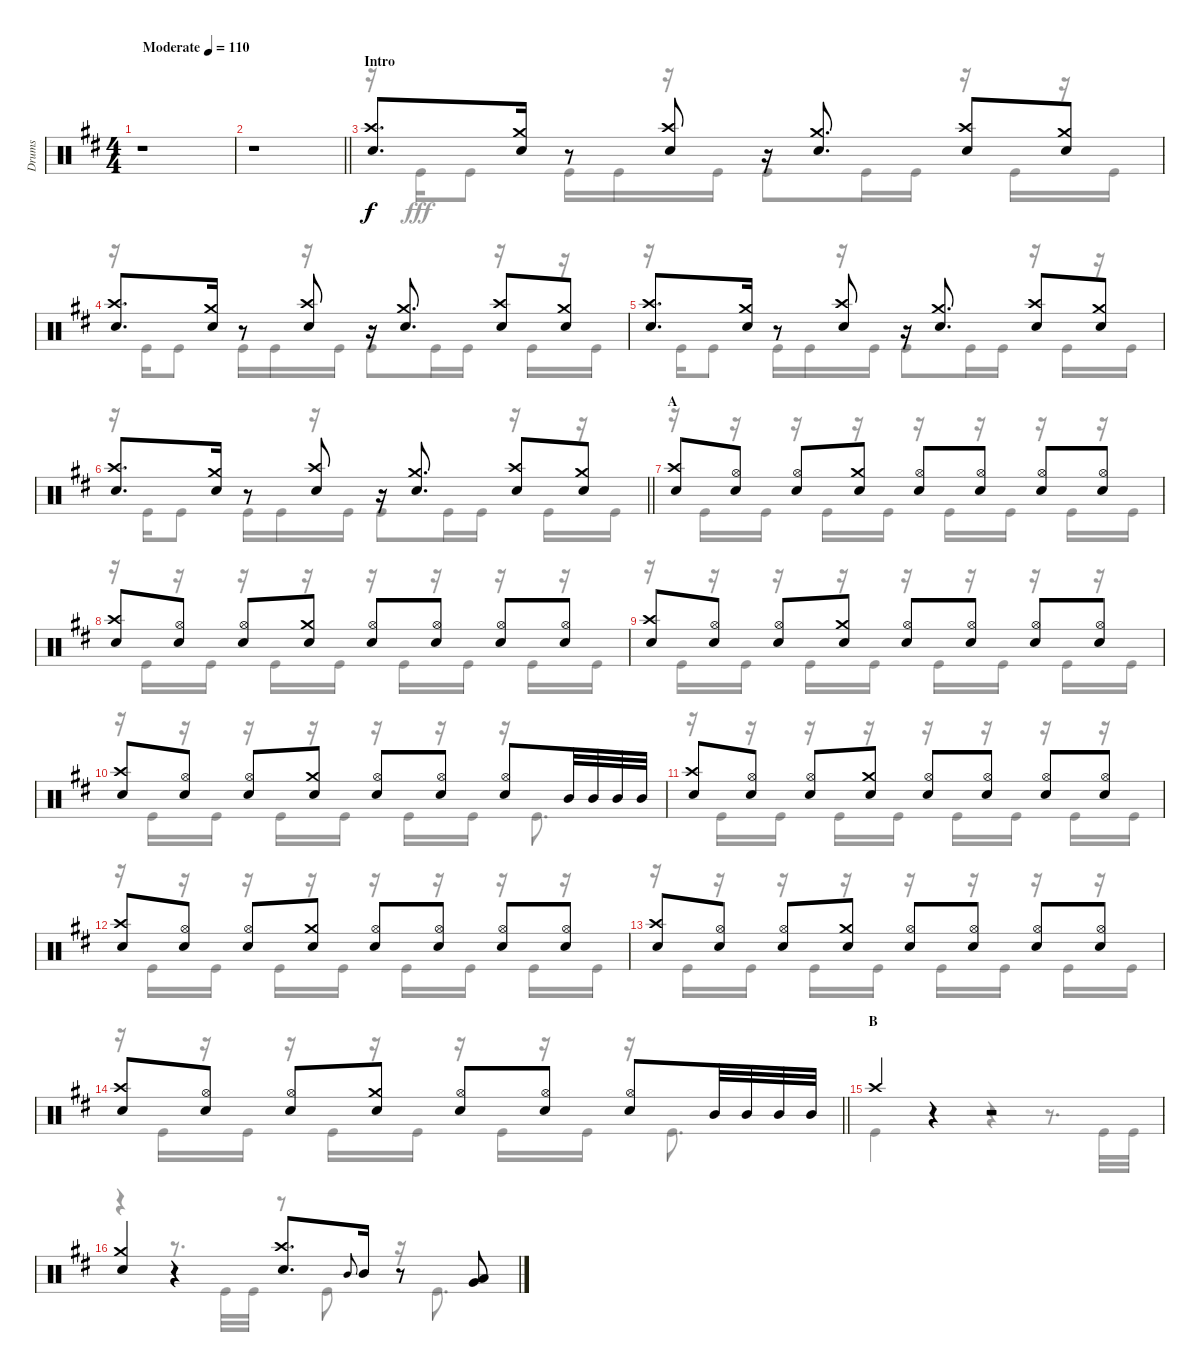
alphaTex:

\track ("Drums" "Drums") {instrument percussion}
\staff {score}
\articulation defaults
\voice
\ts (4 4)
\tempo (110 "Moderate")
\clef neutral
\ks d
r.1{dy f} |
\barLineRight lightlight
r.1 |
\section ("" "Intro")
("Crash high (hit)" "Snare (hit) 2").8{d} ("Crash medium (hit)" "Snare (hit) 2").16 r.8 ("Crash high (hit)" "Snare (hit) 2").8 r.16 ("Crash medium (hit)" "Snare (hit) 2").8{d} ("Crash high (hit)" "Snare (hit) 2").8 ("Crash medium (hit)" "Snare (hit) 2").8 |
("Crash high (hit)" "Snare (hit) 2").8{d} ("Crash medium (hit)" "Snare (hit) 2").16 r.8 ("Crash high (hit)" "Snare (hit) 2").8 r.16 ("Crash medium (hit)" "Snare (hit) 2").8{d} ("Crash high (hit)" "Snare (hit) 2").8 ("Crash medium (hit)" "Snare (hit) 2").8 |
("Crash high (hit)" "Snare (hit) 2").8{d} ("Crash medium (hit)" "Snare (hit) 2").16 r.8 ("Crash high (hit)" "Snare (hit) 2").8 r.16 ("Crash medium (hit)" "Snare (hit) 2").8{d} ("Crash high (hit)" "Snare (hit) 2").8 ("Crash medium (hit)" "Snare (hit) 2").8 |
\barLineRight lightlight
("Crash high (hit)" "Snare (hit) 2").8{d} ("Crash medium (hit)" "Snare (hit) 2").16 r.8 ("Crash high (hit)" "Snare (hit) 2").8 r.16 ("Crash medium (hit)" "Snare (hit) 2").8{d} ("Crash high (hit)" "Snare (hit) 2").8 ("Crash medium (hit)" "Snare (hit) 2").8 |
\section ("" "A")
("Crash high (hit)" "Snare (hit) 2").8 ("Hi-Hat (open)" "Snare (hit) 2").8 ("Hi-Hat (open)" "Snare (hit) 2").8 ("Crash medium (hit)" "Snare (hit) 2").8 ("Hi-Hat (open)" "Snare (hit) 2").8 ("Hi-Hat (open)" "Snare (hit) 2").8 ("Hi-Hat (open)" "Snare (hit) 2").8 ("Hi-Hat (open)" "Snare (hit) 2").8 |
("Crash high (hit)" "Snare (hit) 2").8 ("Hi-Hat (open)" "Snare (hit) 2").8 ("Hi-Hat (open)" "Snare (hit) 2").8 ("Crash medium (hit)" "Snare (hit) 2").8 ("Hi-Hat (open)" "Snare (hit) 2").8 ("Hi-Hat (open)" "Snare (hit) 2").8 ("Hi-Hat (open)" "Snare (hit) 2").8 ("Hi-Hat (open)" "Snare (hit) 2").8 |
("Crash high (hit)" "Snare (hit) 2").8 ("Hi-Hat (open)" "Snare (hit) 2").8 ("Hi-Hat (open)" "Snare (hit) 2").8 ("Crash medium (hit)" "Snare (hit) 2").8 ("Hi-Hat (open)" "Snare (hit) 2").8 ("Hi-Hat (open)" "Snare (hit) 2").8 ("Hi-Hat (open)" "Snare (hit) 2").8 ("Hi-Hat (open)" "Snare (hit) 2").8 |
("Crash high (hit)" "Snare (hit) 2").8 ("Hi-Hat (open)" "Snare (hit) 2").8 ("Hi-Hat (open)" "Snare (hit) 2").8 ("Crash medium (hit)" "Snare (hit) 2").8 ("Hi-Hat (open)" "Snare (hit) 2").8 ("Hi-Hat (open)" "Snare (hit) 2").8 ("Hi-Hat (open)" "Snare (hit) 2").8 "Mid Tom (hit)".32 "Mid Tom (hit)".32 "Mid Tom (hit)".32 "Mid Tom (hit)".32 |
("Crash high (hit)" "Snare (hit) 2").8 ("Hi-Hat (open)" "Snare (hit) 2").8 ("Hi-Hat (open)" "Snare (hit) 2").8 ("Crash medium (hit)" "Snare (hit) 2").8 ("Hi-Hat (open)" "Snare (hit) 2").8 ("Hi-Hat (open)" "Snare (hit) 2").8 ("Hi-Hat (open)" "Snare (hit) 2").8 ("Hi-Hat (open)" "Snare (hit) 2").8 |
("Crash high (hit)" "Snare (hit) 2").8 ("Hi-Hat (open)" "Snare (hit) 2").8 ("Hi-Hat (open)" "Snare (hit) 2").8 ("Crash medium (hit)" "Snare (hit) 2").8 ("Hi-Hat (open)" "Snare (hit) 2").8 ("Hi-Hat (open)" "Snare (hit) 2").8 ("Hi-Hat (open)" "Snare (hit) 2").8 ("Hi-Hat (open)" "Snare (hit) 2").8 |
("Crash high (hit)" "Snare (hit) 2").8 ("Hi-Hat (open)" "Snare (hit) 2").8 ("Hi-Hat (open)" "Snare (hit) 2").8 ("Crash medium (hit)" "Snare (hit) 2").8 ("Hi-Hat (open)" "Snare (hit) 2").8 ("Hi-Hat (open)" "Snare (hit) 2").8 ("Hi-Hat (open)" "Snare (hit) 2").8 ("Hi-Hat (open)" "Snare (hit) 2").8 |
\barLineRight lightlight
("Crash high (hit)" "Snare (hit) 2").8 ("Hi-Hat (open)" "Snare (hit) 2").8 ("Hi-Hat (open)" "Snare (hit) 2").8 ("Crash medium (hit)" "Snare (hit) 2").8 ("Hi-Hat (open)" "Snare (hit) 2").8 ("Hi-Hat (open)" "Snare (hit) 2").8 ("Hi-Hat (open)" "Snare (hit) 2").8 "Mid Tom (hit)".32 "Mid Tom (hit)".32 "Mid Tom (hit)".32 "Mid Tom (hit)".32 |
\section ("" "B")
"Crash high (hit)".4 r.4 r.2 |
("Crash medium (hit)" "Snare (hit) 2").4 r.4 ("Crash high (hit)" "Snare (hit) 2").8{d} "Mid Tom (hit)".8{gr onbeat} "Mid Tom (hit)".16 r.8 ("Low Tom (hit)" "Very Low Tom (hit)").8
\voice
\clef neutral
\ottava regular
\simile none
\ks d
r.1{dy fff} |
\barLineRight lightlight
r.1 |
r.16 "Kick (hit)".16 "Kick (hit)".8 "Kick (hit)".16 "Kick (hit)".16 r.16 "Kick (hit)".16 "Kick (hit)".8 "Kick (hit)".16 "Kick (hit)".16 r.16 "Kick (hit)".16 r.16 "Kick (hit)".16 |
r.16 "Kick (hit)".16 "Kick (hit)".8 "Kick (hit)".16 "Kick (hit)".16 r.16 "Kick (hit)".16 "Kick (hit)".8 "Kick (hit)".16 "Kick (hit)".16 r.16 "Kick (hit)".16 r.16 "Kick (hit)".16 |
r.16 "Kick (hit)".16 "Kick (hit)".8 "Kick (hit)".16 "Kick (hit)".16 r.16 "Kick (hit)".16 "Kick (hit)".8 "Kick (hit)".16 "Kick (hit)".16 r.16 "Kick (hit)".16 r.16 "Kick (hit)".16 |
\barLineRight lightlight
r.16 "Kick (hit)".16 "Kick (hit)".8 "Kick (hit)".16 "Kick (hit)".16 r.16 "Kick (hit)".16 "Kick (hit)".8 "Kick (hit)".16 "Kick (hit)".16 r.16 "Kick (hit)".16 r.16 "Kick (hit)".16 |
r.16 "Kick (hit)".16 r.16 "Kick (hit)".16 r.16 "Kick (hit)".16 r.16 "Kick (hit)".16 r.16 "Kick (hit)".16 r.16 "Kick (hit)".16 r.16 "Kick (hit)".16 r.16 "Kick (hit)".16 |
r.16 "Kick (hit)".16 r.16 "Kick (hit)".16 r.16 "Kick (hit)".16 r.16 "Kick (hit)".16 r.16 "Kick (hit)".16 r.16 "Kick (hit)".16 r.16 "Kick (hit)".16 r.16 "Kick (hit)".16 |
r.16 "Kick (hit)".16 r.16 "Kick (hit)".16 r.16 "Kick (hit)".16 r.16 "Kick (hit)".16 r.16 "Kick (hit)".16 r.16 "Kick (hit)".16 r.16 "Kick (hit)".16 r.16 "Kick (hit)".16 |
r.16 "Kick (hit)".16 r.16 "Kick (hit)".16 r.16 "Kick (hit)".16 r.16 "Kick (hit)".16 r.16 "Kick (hit)".16 r.16 "Kick (hit)".16 r.16 "Kick (hit)".8{d} |
r.16 "Kick (hit)".16 r.16 "Kick (hit)".16 r.16 "Kick (hit)".16 r.16 "Kick (hit)".16 r.16 "Kick (hit)".16 r.16 "Kick (hit)".16 r.16 "Kick (hit)".16 r.16 "Kick (hit)".16 |
r.16 "Kick (hit)".16 r.16 "Kick (hit)".16 r.16 "Kick (hit)".16 r.16 "Kick (hit)".16 r.16 "Kick (hit)".16 r.16 "Kick (hit)".16 r.16 "Kick (hit)".16 r.16 "Kick (hit)".16 |
r.16 "Kick (hit)".16 r.16 "Kick (hit)".16 r.16 "Kick (hit)".16 r.16 "Kick (hit)".16 r.16 "Kick (hit)".16 r.16 "Kick (hit)".16 r.16 "Kick (hit)".16 r.16 "Kick (hit)".16 |
\barLineRight lightlight
r.16 "Kick (hit)".16 r.16 "Kick (hit)".16 r.16 "Kick (hit)".16 r.16 "Kick (hit)".16 r.16 "Kick (hit)".16 r.16 "Kick (hit)".16 r.16 "Kick (hit)".8{d} |
"Kick (hit)".4 r.4 r.4 r.8{d} "Kick (hit)".32 "Kick (hit)".32 |
r.4 r.8{d} "Kick (hit)".32 "Kick (hit)".32 r.8 "Kick (hit)".8 r.16 "Kick (hit)".8{d}
